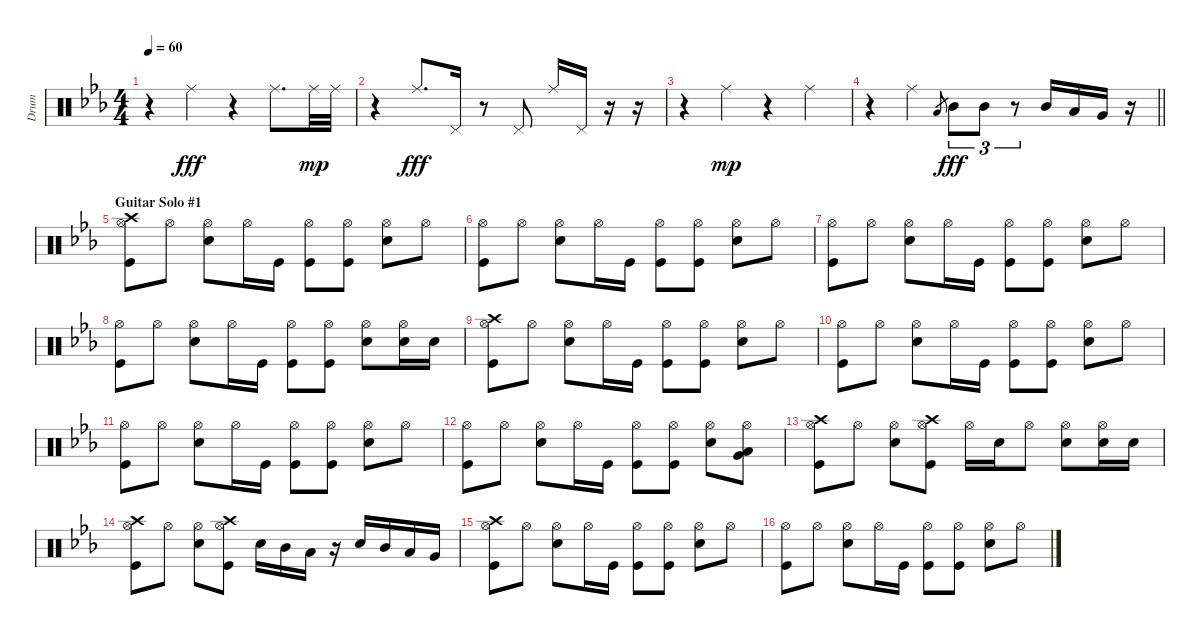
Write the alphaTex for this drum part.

\track ("Drum" "Drum") {instrument percussion}
\staff {score}
\articulation defaults
\ts (4 4)
\tempo 60
\clef neutral
\ks eb
r.4{dy fff} "Ride (middle)".4 r.4 "Ride (middle)".8{d} "Ride (middle)".32{dy mp} "Ride (middle)".32 |
r.4 "Ride (middle)".8{d dy fff} "Pedal Hi-Hat (hit)".16 r.8 "Pedal Hi-Hat (hit)".8 "Ride (middle)".16 "Pedal Hi-Hat (hit)".16 r.16 r.16 |
r.4 "Ride (middle)".4{dy mp} r.4 "Ride (middle)".4 |
\barLineRight lightlight
r.4 "Ride (middle)".4 "Low Tom (hit)".8{gr} "Mid Tom (hit)".8{tu (3 2) dy fff volume 16} "Mid Tom (hit)".8{tu (3 2)} r.8{tu (3 2)} "Mid Tom (hit)".16 "Low Tom (hit)".16 "Very Low Tom (hit)".16 r.16 |
\section ("" "Guitar Solo #1")
("Crash high (hit)" "Hi-Hat (open)" "Kick (hit)").8 "Hi-Hat (open)".8 ("Hi-Hat (open)" "Electric Snare (hit)").8 "Hi-Hat (open)".16 "Kick (hit)".16 ("Hi-Hat (open)" "Kick (hit)").8 ("Hi-Hat (open)" "Kick (hit)").8 ("Hi-Hat (open)" "Electric Snare (hit)").8 "Hi-Hat (open)".8 |
("Hi-Hat (open)" "Kick (hit)").8 "Hi-Hat (open)".8 ("Hi-Hat (open)" "Electric Snare (hit)").8 "Hi-Hat (open)".16 "Kick (hit)".16 ("Hi-Hat (open)" "Kick (hit)").8 ("Hi-Hat (open)" "Kick (hit)").8 ("Hi-Hat (open)" "Electric Snare (hit)").8 "Hi-Hat (open)".8 |
("Hi-Hat (open)" "Kick (hit)").8 "Hi-Hat (open)".8 ("Hi-Hat (open)" "Electric Snare (hit)").8 "Hi-Hat (open)".16 "Kick (hit)".16 ("Hi-Hat (open)" "Kick (hit)").8 ("Hi-Hat (open)" "Kick (hit)").8 ("Hi-Hat (open)" "Electric Snare (hit)").8 "Hi-Hat (open)".8 |
("Hi-Hat (open)" "Kick (hit)").8 "Hi-Hat (open)".8 ("Hi-Hat (open)" "Electric Snare (hit)").8 "Hi-Hat (open)".16 "Kick (hit)".16 ("Hi-Hat (open)" "Kick (hit)").8 ("Hi-Hat (open)" "Kick (hit)").8 ("Hi-Hat (open)" "Electric Snare (hit)").8 ("Hi-Hat (open)" "Electric Snare (hit)").16 "Electric Snare (hit)".16 |
("Crash high (hit)" "Hi-Hat (open)" "Kick (hit)").8 "Hi-Hat (open)".8 ("Hi-Hat (open)" "Electric Snare (hit)").8 "Hi-Hat (open)".16 "Kick (hit)".16 ("Hi-Hat (open)" "Kick (hit)").8 ("Hi-Hat (open)" "Kick (hit)").8 ("Hi-Hat (open)" "Electric Snare (hit)").8 "Hi-Hat (open)".8 |
("Hi-Hat (open)" "Kick (hit)").8 "Hi-Hat (open)".8 ("Hi-Hat (open)" "Electric Snare (hit)").8 "Hi-Hat (open)".16 "Kick (hit)".16 ("Hi-Hat (open)" "Kick (hit)").8 ("Hi-Hat (open)" "Kick (hit)").8 ("Hi-Hat (open)" "Electric Snare (hit)").8 "Hi-Hat (open)".8 |
("Hi-Hat (open)" "Kick (hit)").8 "Hi-Hat (open)".8 ("Hi-Hat (open)" "Electric Snare (hit)").8 "Hi-Hat (open)".16 "Kick (hit)".16 ("Hi-Hat (open)" "Kick (hit)").8 ("Hi-Hat (open)" "Kick (hit)").8 ("Hi-Hat (open)" "Electric Snare (hit)").8 "Hi-Hat (open)".8 |
("Hi-Hat (open)" "Kick (hit)").8 "Hi-Hat (open)".8 ("Hi-Hat (open)" "Electric Snare (hit)").8 "Hi-Hat (open)".16 "Kick (hit)".16 ("Hi-Hat (open)" "Kick (hit)").8 ("Hi-Hat (open)" "Kick (hit)").8 ("Hi-Hat (open)" "Electric Snare (hit)").8 ("Hi-Hat (open)" "Low Tom (hit)" "Very Low Tom (hit)").8 |
("Crash high (hit)" "Hi-Hat (open)" "Kick (hit)").8 "Hi-Hat (open)".8 ("Hi-Hat (open)" "Electric Snare (hit)").8 ("Crash high (hit)" "Hi-Hat (open)" "Kick (hit)").8 "Hi-Hat (open)".16 "Electric Snare (hit)".16 "Hi-Hat (open)".8 ("Hi-Hat (open)" "Electric Snare (hit)").8 ("Hi-Hat (open)" "Electric Snare (hit)").16 "Electric Snare (hit)".16 |
("Crash high (hit)" "Hi-Hat (open)" "Kick (hit)").8 "Hi-Hat (open)".8 ("Hi-Hat (open)" "Electric Snare (hit)").8 ("Crash high (hit)" "Hi-Hat (open)" "Kick (hit)").8 "Electric Snare (hit)".16 "Mid Tom (hit)".16 "Low Tom (hit)".16 r.16 "Electric Snare (hit)".16 "Mid Tom (hit)".16 "Low Tom (hit)".16 "Very Low Tom (hit)".16 |
("Crash high (hit)" "Hi-Hat (open)" "Kick (hit)").8 "Hi-Hat (open)".8 ("Hi-Hat (open)" "Electric Snare (hit)").8 "Hi-Hat (open)".16 "Kick (hit)".16 ("Hi-Hat (open)" "Kick (hit)").8 ("Hi-Hat (open)" "Kick (hit)").8 ("Hi-Hat (open)" "Electric Snare (hit)").8 "Hi-Hat (open)".8 |
("Hi-Hat (open)" "Kick (hit)").8 "Hi-Hat (open)".8 ("Hi-Hat (open)" "Electric Snare (hit)").8 "Hi-Hat (open)".16 "Kick (hit)".16 ("Hi-Hat (open)" "Kick (hit)").8 ("Hi-Hat (open)" "Kick (hit)").8 ("Hi-Hat (open)" "Electric Snare (hit)").8 "Hi-Hat (open)".8
